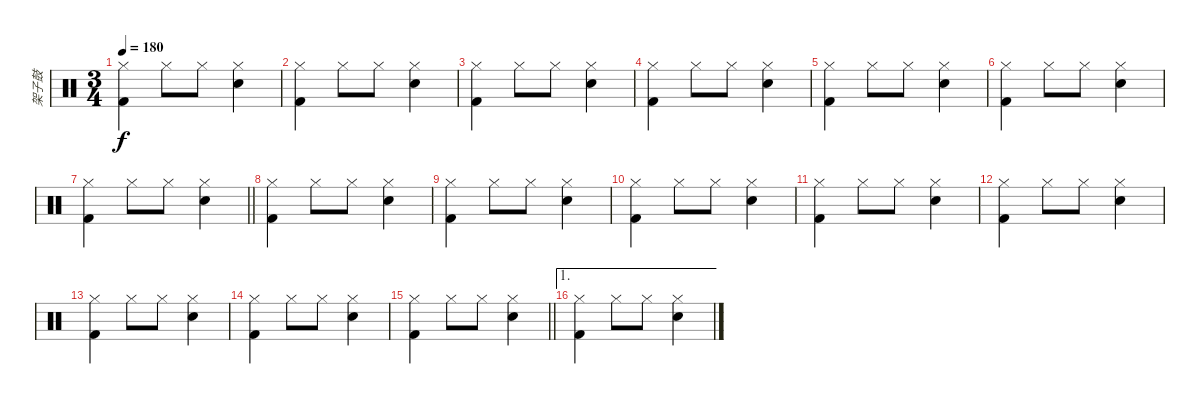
\track ("架子鼓" "架子鼓") {instrument percussion}
\staff {score}
\articulation defaults
\ts (3 4)
\tempo 180
\clef neutral
\ks c
("Hi-Hat (closed)" "Kick (hit) 2").4{dy f} "Hi-Hat (closed)".8 "Hi-Hat (closed)".8 ("Hi-Hat (closed)" "Electric Snare (hit)").4 |
("Hi-Hat (closed)" "Kick (hit) 2").4 "Hi-Hat (closed)".8 "Hi-Hat (closed)".8 ("Hi-Hat (closed)" "Electric Snare (hit)").4 |
("Hi-Hat (closed)" "Kick (hit) 2").4 "Hi-Hat (closed)".8 "Hi-Hat (closed)".8 ("Hi-Hat (closed)" "Electric Snare (hit)").4 |
("Hi-Hat (closed)" "Kick (hit) 2").4 "Hi-Hat (closed)".8 "Hi-Hat (closed)".8 ("Hi-Hat (closed)" "Electric Snare (hit)").4 |
("Hi-Hat (closed)" "Kick (hit) 2").4 "Hi-Hat (closed)".8 "Hi-Hat (closed)".8 ("Hi-Hat (closed)" "Electric Snare (hit)").4 |
("Hi-Hat (closed)" "Kick (hit) 2").4 "Hi-Hat (closed)".8 "Hi-Hat (closed)".8 ("Hi-Hat (closed)" "Electric Snare (hit)").4 |
\barLineRight lightlight
("Hi-Hat (closed)" "Kick (hit) 2").4 "Hi-Hat (closed)".8 "Hi-Hat (closed)".8 ("Hi-Hat (closed)" "Electric Snare (hit)").4 |
("Hi-Hat (closed)" "Kick (hit) 2").4 "Hi-Hat (closed)".8 "Hi-Hat (closed)".8 ("Hi-Hat (closed)" "Electric Snare (hit)").4 |
("Hi-Hat (closed)" "Kick (hit) 2").4 "Hi-Hat (closed)".8 "Hi-Hat (closed)".8 ("Hi-Hat (closed)" "Electric Snare (hit)").4 |
("Hi-Hat (closed)" "Kick (hit) 2").4 "Hi-Hat (closed)".8 "Hi-Hat (closed)".8 ("Hi-Hat (closed)" "Electric Snare (hit)").4 |
("Hi-Hat (closed)" "Kick (hit) 2").4 "Hi-Hat (closed)".8 "Hi-Hat (closed)".8 ("Hi-Hat (closed)" "Electric Snare (hit)").4 |
("Hi-Hat (closed)" "Kick (hit) 2").4 "Hi-Hat (closed)".8 "Hi-Hat (closed)".8 ("Hi-Hat (closed)" "Electric Snare (hit)").4 |
("Hi-Hat (closed)" "Kick (hit) 2").4 "Hi-Hat (closed)".8 "Hi-Hat (closed)".8 ("Hi-Hat (closed)" "Electric Snare (hit)").4 |
("Hi-Hat (closed)" "Kick (hit) 2").4 "Hi-Hat (closed)".8 "Hi-Hat (closed)".8 ("Hi-Hat (closed)" "Electric Snare (hit)").4 |
\barLineRight lightlight
("Hi-Hat (closed)" "Kick (hit) 2").4 "Hi-Hat (closed)".8 "Hi-Hat (closed)".8 ("Hi-Hat (closed)" "Electric Snare (hit)").4 |
\ae 1
("Hi-Hat (closed)" "Kick (hit) 2").4 "Hi-Hat (closed)".8 "Hi-Hat (closed)".8 ("Hi-Hat (closed)" "Electric Snare (hit)").4
